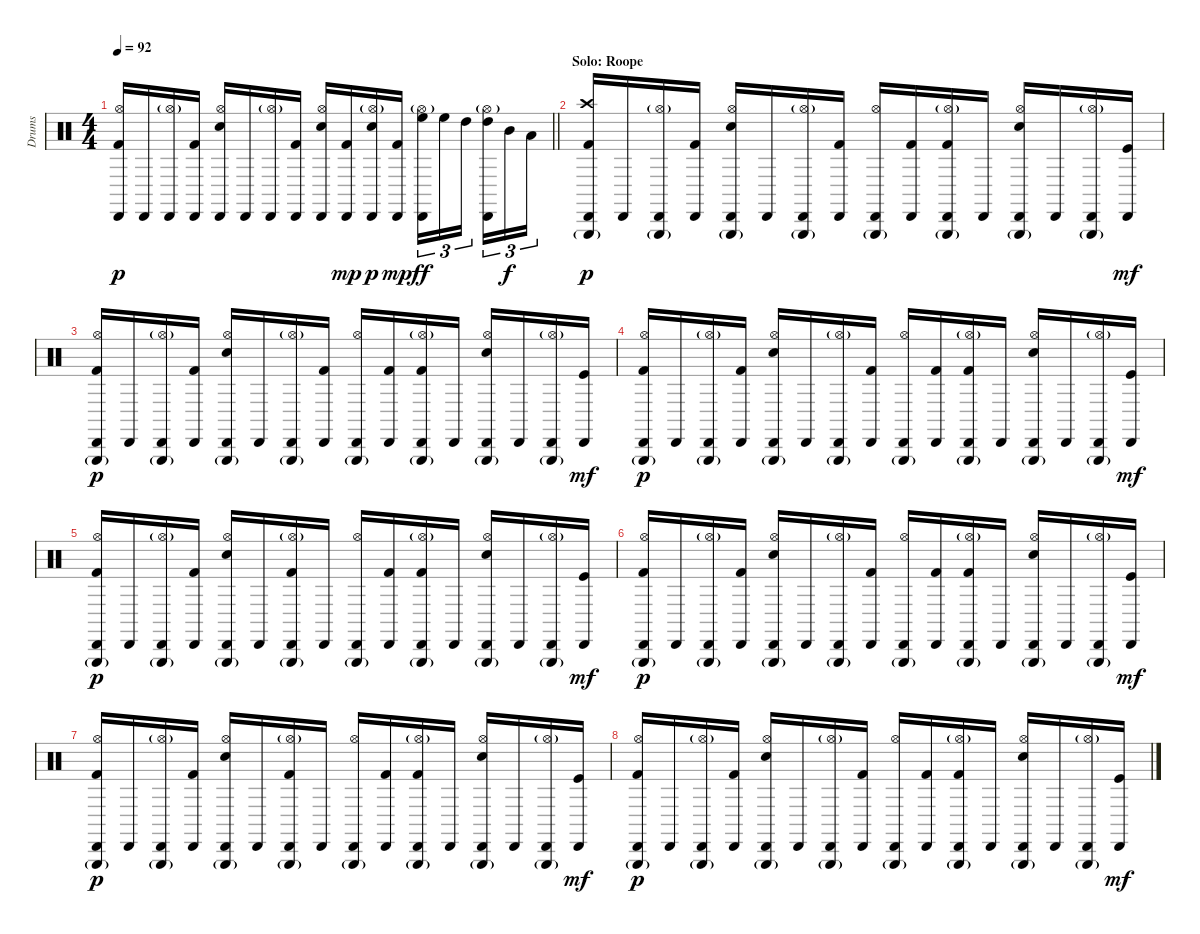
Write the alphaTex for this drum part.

\track ("Drums" "Drums") {instrument percussion}
\staff {score}
\articulation defaults
\ts (4 4)
\tempo 92
\clef neutral
\barLineRight lightlight
\ks c
("Hi-Hat (open)" "Cabasa (hit)" "Kick (hit) 2").16{dy p} "Cabasa (hit)".16 ("Hi-Hat (open)"{g} "Cabasa (hit)").16 ("Cabasa (hit)" "Kick (hit) 2").16 ("Hi-Hat (open)" "Cabasa (hit)" "Electric Snare (hit)").16 "Cabasa (hit)".16 ("Hi-Hat (open)"{g} "Cabasa (hit)").16 ("Cabasa (hit)" "Kick (hit) 2").16 ("Hi-Hat (open)" "Cabasa (hit)" "Electric Snare (hit)").16 ("Cabasa (hit)" "Kick (hit) 2").16{dy mp} ("Hi-Hat (open)"{g} "Cabasa (hit)" "Electric Snare (hit)").16{dy p} ("Cabasa (hit)" "Kick (hit) 2").16{dy mp} ("Hi-Hat (open)"{g} "Cabasa (hit)" "High Floor Tom (hit)").16{tu (3 2) dy ff} "High Floor Tom (hit)".16{tu (3 2)} "High Tom (hit)".16{tu (3 2)} ("Hi-Hat (open)"{g} "Cabasa (hit)" "High Tom (hit)").16{tu (3 2)} "Mid Tom (hit)".16{tu (3 2) dy f} "Low Tom (hit)".16{tu (3 2)} |
\section ("" "Solo: Roope")
("Crash high (hit)" "Triangle (hit)"{g} "Cabasa (hit)" "Kick (hit) 2").16{dy p} "Cabasa (hit)".16 ("Triangle (hit)"{g} "Hi-Hat (open)"{g} "Cabasa (hit)").16 ("Cabasa (hit)" "Kick (hit) 2").16 ("Triangle (hit)"{g} "Hi-Hat (open)" "Cabasa (hit)" "Electric Snare (hit)").16 "Cabasa (hit)".16 ("Triangle (hit)"{g} "Hi-Hat (open)"{g} "Cabasa (hit)").16 ("Cabasa (hit)" "Kick (hit) 2").16 ("Triangle (hit)"{g} "Hi-Hat (open)" "Cabasa (hit)").16 ("Cabasa (hit)" "Kick (hit) 2").16 ("Triangle (hit)"{g} "Hi-Hat (open)"{g} "Cabasa (hit)" "Kick (hit) 2").16 "Cabasa (hit)".16 ("Triangle (hit)"{g} "Hi-Hat (open)" "Cabasa (hit)" "Electric Snare (hit)").16 "Cabasa (hit)".16 ("Triangle (hit)"{g} "Hi-Hat (open)"{g} "Cabasa (hit)").16 ("Cabasa (hit)" "Kick (hit)").16{dy mf} |
("Triangle (hit)"{g} "Hi-Hat (open)" "Cabasa (hit)" "Kick (hit) 2").16{dy p} "Cabasa (hit)".16 ("Triangle (hit)"{g} "Hi-Hat (open)"{g} "Cabasa (hit)").16 ("Cabasa (hit)" "Kick (hit) 2").16 ("Triangle (hit)"{g} "Hi-Hat (open)" "Cabasa (hit)" "Electric Snare (hit)").16 "Cabasa (hit)".16 ("Triangle (hit)"{g} "Hi-Hat (open)"{g} "Cabasa (hit)").16 ("Cabasa (hit)" "Kick (hit) 2").16 ("Triangle (hit)"{g} "Hi-Hat (open)" "Cabasa (hit)").16 ("Cabasa (hit)" "Kick (hit) 2").16 ("Triangle (hit)"{g} "Hi-Hat (open)"{g} "Cabasa (hit)" "Kick (hit) 2").16 "Cabasa (hit)".16 ("Triangle (hit)"{g} "Hi-Hat (open)" "Cabasa (hit)" "Electric Snare (hit)").16 "Cabasa (hit)".16 ("Triangle (hit)"{g} "Hi-Hat (open)"{g} "Cabasa (hit)").16 ("Cabasa (hit)" "Kick (hit)").16{dy mf} |
("Triangle (hit)"{g} "Hi-Hat (open)" "Cabasa (hit)" "Kick (hit) 2").16{dy p} "Cabasa (hit)".16 ("Triangle (hit)"{g} "Hi-Hat (open)"{g} "Cabasa (hit)").16 ("Cabasa (hit)" "Kick (hit) 2").16 ("Triangle (hit)"{g} "Hi-Hat (open)" "Cabasa (hit)" "Electric Snare (hit)").16 "Cabasa (hit)".16 ("Triangle (hit)"{g} "Hi-Hat (open)"{g} "Cabasa (hit)").16 ("Cabasa (hit)" "Kick (hit) 2").16 ("Triangle (hit)"{g} "Hi-Hat (open)" "Cabasa (hit)").16 ("Cabasa (hit)" "Kick (hit) 2").16 ("Triangle (hit)"{g} "Hi-Hat (open)"{g} "Cabasa (hit)" "Kick (hit) 2").16 "Cabasa (hit)".16 ("Triangle (hit)"{g} "Hi-Hat (open)" "Cabasa (hit)" "Electric Snare (hit)").16 "Cabasa (hit)".16 ("Triangle (hit)"{g} "Hi-Hat (open)"{g} "Cabasa (hit)").16 ("Cabasa (hit)" "Kick (hit)").16{dy mf} |
("Triangle (hit)"{g} "Hi-Hat (open)" "Cabasa (hit)" "Kick (hit) 2").16{dy p} "Cabasa (hit)".16 ("Triangle (hit)"{g} "Hi-Hat (open)"{g} "Cabasa (hit)").16 ("Cabasa (hit)" "Kick (hit) 2").16 ("Triangle (hit)"{g} "Hi-Hat (open)" "Cabasa (hit)" "Electric Snare (hit)").16 "Cabasa (hit)".16 ("Triangle (hit)"{g} "Hi-Hat (open)"{g} "Cabasa (hit)" "Kick (hit) 2").16 "Cabasa (hit)".16 ("Triangle (hit)"{g} "Hi-Hat (open)" "Cabasa (hit)").16 ("Cabasa (hit)" "Kick (hit) 2").16 ("Triangle (hit)"{g} "Hi-Hat (open)"{g} "Cabasa (hit)" "Kick (hit) 2").16 "Cabasa (hit)".16 ("Triangle (hit)"{g} "Hi-Hat (open)" "Cabasa (hit)" "Electric Snare (hit)").16 "Cabasa (hit)".16 ("Triangle (hit)"{g} "Hi-Hat (open)"{g} "Cabasa (hit)").16 ("Cabasa (hit)" "Kick (hit)").16{dy mf} |
("Triangle (hit)"{g} "Hi-Hat (open)" "Cabasa (hit)" "Kick (hit) 2").16{dy p} "Cabasa (hit)".16 ("Triangle (hit)"{g} "Hi-Hat (open)"{g} "Cabasa (hit)").16 ("Cabasa (hit)" "Kick (hit) 2").16 ("Triangle (hit)"{g} "Hi-Hat (open)" "Cabasa (hit)" "Electric Snare (hit)").16 "Cabasa (hit)".16 ("Triangle (hit)"{g} "Hi-Hat (open)"{g} "Cabasa (hit)").16 ("Cabasa (hit)" "Kick (hit) 2").16 ("Triangle (hit)"{g} "Hi-Hat (open)" "Cabasa (hit)").16 ("Cabasa (hit)" "Kick (hit) 2").16 ("Triangle (hit)"{g} "Hi-Hat (open)"{g} "Cabasa (hit)" "Kick (hit) 2").16 "Cabasa (hit)".16 ("Triangle (hit)"{g} "Hi-Hat (open)" "Cabasa (hit)" "Electric Snare (hit)").16 "Cabasa (hit)".16 ("Triangle (hit)"{g} "Hi-Hat (open)"{g} "Cabasa (hit)").16 ("Cabasa (hit)" "Kick (hit)").16{dy mf} |
("Triangle (hit)"{g} "Hi-Hat (open)" "Cabasa (hit)" "Kick (hit) 2").16{dy p} "Cabasa (hit)".16 ("Triangle (hit)"{g} "Hi-Hat (open)"{g} "Cabasa (hit)").16 ("Cabasa (hit)" "Kick (hit) 2").16 ("Triangle (hit)"{g} "Hi-Hat (open)" "Cabasa (hit)" "Electric Snare (hit)").16 "Cabasa (hit)".16 ("Triangle (hit)"{g} "Hi-Hat (open)"{g} "Cabasa (hit)" "Kick (hit) 2").16 "Cabasa (hit)".16 ("Triangle (hit)"{g} "Hi-Hat (open)" "Cabasa (hit)").16 ("Cabasa (hit)" "Kick (hit) 2").16 ("Triangle (hit)"{g} "Hi-Hat (open)"{g} "Cabasa (hit)" "Kick (hit) 2").16 "Cabasa (hit)".16 ("Triangle (hit)"{g} "Hi-Hat (open)" "Cabasa (hit)" "Electric Snare (hit)").16 "Cabasa (hit)".16 ("Triangle (hit)"{g} "Hi-Hat (open)"{g} "Cabasa (hit)").16 ("Cabasa (hit)" "Kick (hit)").16{dy mf} |
("Triangle (hit)"{g} "Hi-Hat (open)" "Cabasa (hit)" "Kick (hit) 2").16{dy p} "Cabasa (hit)".16 ("Triangle (hit)"{g} "Hi-Hat (open)"{g} "Cabasa (hit)").16 ("Cabasa (hit)" "Kick (hit) 2").16 ("Triangle (hit)"{g} "Hi-Hat (open)" "Cabasa (hit)" "Electric Snare (hit)").16 "Cabasa (hit)".16 ("Triangle (hit)"{g} "Hi-Hat (open)"{g} "Cabasa (hit)").16 ("Cabasa (hit)" "Kick (hit) 2").16 ("Triangle (hit)"{g} "Hi-Hat (open)" "Cabasa (hit)").16 ("Cabasa (hit)" "Kick (hit) 2").16 ("Triangle (hit)"{g} "Hi-Hat (open)"{g} "Cabasa (hit)" "Kick (hit) 2").16 "Cabasa (hit)".16 ("Triangle (hit)"{g} "Hi-Hat (open)" "Cabasa (hit)" "Electric Snare (hit)").16 "Cabasa (hit)".16 ("Triangle (hit)"{g} "Hi-Hat (open)"{g} "Cabasa (hit)").16 ("Cabasa (hit)" "Kick (hit)").16{dy mf}
